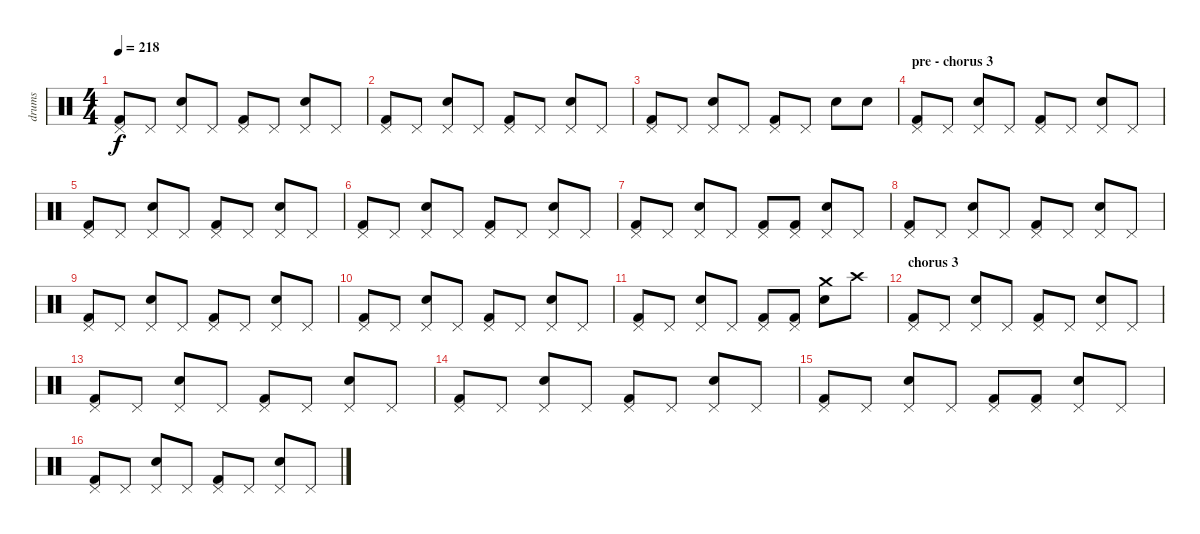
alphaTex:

\track ("drums" "drums") {instrument percussion}
\staff {score}
\articulation defaults
\ts (4 4)
\tempo 218
\clef neutral
\ks c
("Kick (hit) 2" "Pedal Hi-Hat (hit)").8{dy f} "Pedal Hi-Hat (hit)".8 ("Snare (hit) 2" "Pedal Hi-Hat (hit)").8 "Pedal Hi-Hat (hit)".8 ("Kick (hit) 2" "Pedal Hi-Hat (hit)").8 "Pedal Hi-Hat (hit)".8 ("Snare (hit) 2" "Pedal Hi-Hat (hit)").8 "Pedal Hi-Hat (hit)".8 |
("Kick (hit) 2" "Pedal Hi-Hat (hit)").8 "Pedal Hi-Hat (hit)".8 ("Snare (hit) 2" "Pedal Hi-Hat (hit)").8 "Pedal Hi-Hat (hit)".8 ("Kick (hit) 2" "Pedal Hi-Hat (hit)").8 "Pedal Hi-Hat (hit)".8 ("Snare (hit) 2" "Pedal Hi-Hat (hit)").8 "Pedal Hi-Hat (hit)".8 |
("Kick (hit) 2" "Pedal Hi-Hat (hit)").8 "Pedal Hi-Hat (hit)".8 ("Snare (hit) 2" "Pedal Hi-Hat (hit)").8 "Pedal Hi-Hat (hit)".8 ("Kick (hit) 2" "Pedal Hi-Hat (hit)").8 "Pedal Hi-Hat (hit)".8 "Snare (hit) 2"{tr (38 16)}.8 "Snare (hit) 2"{tr (38 16)}.8 |
\section ("" "pre - chorus 3")
("Kick (hit) 2" "Pedal Hi-Hat (hit)").8 "Pedal Hi-Hat (hit)".8 ("Snare (hit) 2" "Pedal Hi-Hat (hit)").8 "Pedal Hi-Hat (hit)".8 ("Kick (hit) 2" "Pedal Hi-Hat (hit)").8 "Pedal Hi-Hat (hit)".8 ("Snare (hit) 2" "Pedal Hi-Hat (hit)").8 "Pedal Hi-Hat (hit)".8 |
("Kick (hit) 2" "Pedal Hi-Hat (hit)").8 "Pedal Hi-Hat (hit)".8 ("Snare (hit) 2" "Pedal Hi-Hat (hit)").8 "Pedal Hi-Hat (hit)".8 ("Kick (hit) 2" "Pedal Hi-Hat (hit)").8 "Pedal Hi-Hat (hit)".8 ("Snare (hit) 2" "Pedal Hi-Hat (hit)").8 "Pedal Hi-Hat (hit)".8 |
("Kick (hit) 2" "Pedal Hi-Hat (hit)").8 "Pedal Hi-Hat (hit)".8 ("Snare (hit) 2" "Pedal Hi-Hat (hit)").8 "Pedal Hi-Hat (hit)".8 ("Kick (hit) 2" "Pedal Hi-Hat (hit)").8 "Pedal Hi-Hat (hit)".8 ("Snare (hit) 2" "Pedal Hi-Hat (hit)").8 "Pedal Hi-Hat (hit)".8 |
("Kick (hit) 2" "Pedal Hi-Hat (hit)").8 "Pedal Hi-Hat (hit)".8 ("Snare (hit) 2" "Pedal Hi-Hat (hit)").8 "Pedal Hi-Hat (hit)".8 ("Kick (hit) 2" "Pedal Hi-Hat (hit)").8 ("Kick (hit) 2" "Pedal Hi-Hat (hit)").8 ("Snare (hit) 2" "Pedal Hi-Hat (hit)").8 "Pedal Hi-Hat (hit)".8 |
("Kick (hit) 2" "Pedal Hi-Hat (hit)").8 "Pedal Hi-Hat (hit)".8 ("Snare (hit) 2" "Pedal Hi-Hat (hit)").8 "Pedal Hi-Hat (hit)".8 ("Kick (hit) 2" "Pedal Hi-Hat (hit)").8 "Pedal Hi-Hat (hit)".8 ("Snare (hit) 2" "Pedal Hi-Hat (hit)").8 "Pedal Hi-Hat (hit)".8 |
("Kick (hit) 2" "Pedal Hi-Hat (hit)").8 "Pedal Hi-Hat (hit)".8 ("Snare (hit) 2" "Pedal Hi-Hat (hit)").8 "Pedal Hi-Hat (hit)".8 ("Kick (hit) 2" "Pedal Hi-Hat (hit)").8 "Pedal Hi-Hat (hit)".8 ("Snare (hit) 2" "Pedal Hi-Hat (hit)").8 "Pedal Hi-Hat (hit)".8 |
("Kick (hit) 2" "Pedal Hi-Hat (hit)").8 "Pedal Hi-Hat (hit)".8 ("Snare (hit) 2" "Pedal Hi-Hat (hit)").8 "Pedal Hi-Hat (hit)".8 ("Kick (hit) 2" "Pedal Hi-Hat (hit)").8 "Pedal Hi-Hat (hit)".8 ("Snare (hit) 2" "Pedal Hi-Hat (hit)").8 "Pedal Hi-Hat (hit)".8 |
("Kick (hit) 2" "Pedal Hi-Hat (hit)").8 "Pedal Hi-Hat (hit)".8 ("Snare (hit) 2" "Pedal Hi-Hat (hit)").8 "Pedal Hi-Hat (hit)".8 ("Kick (hit) 2" "Pedal Hi-Hat (hit)").8 ("Kick (hit) 2" "Pedal Hi-Hat (hit)").8 ("Snare (hit) 2" "Crash medium (hit)").8 "Crash high (hit)".8 |
\section ("" "chorus 3")
("Kick (hit) 2" "Pedal Hi-Hat (hit)").8 "Pedal Hi-Hat (hit)".8 ("Snare (hit) 2" "Pedal Hi-Hat (hit)").8 "Pedal Hi-Hat (hit)".8 ("Kick (hit) 2" "Pedal Hi-Hat (hit)").8 "Pedal Hi-Hat (hit)".8 ("Snare (hit) 2" "Pedal Hi-Hat (hit)").8 "Pedal Hi-Hat (hit)".8 |
("Kick (hit) 2" "Pedal Hi-Hat (hit)").8 "Pedal Hi-Hat (hit)".8 ("Snare (hit) 2" "Pedal Hi-Hat (hit)").8 "Pedal Hi-Hat (hit)".8 ("Kick (hit) 2" "Pedal Hi-Hat (hit)").8 "Pedal Hi-Hat (hit)".8 ("Snare (hit) 2" "Pedal Hi-Hat (hit)").8 "Pedal Hi-Hat (hit)".8 |
("Kick (hit) 2" "Pedal Hi-Hat (hit)").8 "Pedal Hi-Hat (hit)".8 ("Snare (hit) 2" "Pedal Hi-Hat (hit)").8 "Pedal Hi-Hat (hit)".8 ("Kick (hit) 2" "Pedal Hi-Hat (hit)").8 "Pedal Hi-Hat (hit)".8 ("Snare (hit) 2" "Pedal Hi-Hat (hit)").8 "Pedal Hi-Hat (hit)".8 |
("Kick (hit) 2" "Pedal Hi-Hat (hit)").8 "Pedal Hi-Hat (hit)".8 ("Snare (hit) 2" "Pedal Hi-Hat (hit)").8 "Pedal Hi-Hat (hit)".8 ("Kick (hit) 2" "Pedal Hi-Hat (hit)").8 ("Kick (hit) 2" "Pedal Hi-Hat (hit)").8 ("Snare (hit) 2" "Pedal Hi-Hat (hit)").8 "Pedal Hi-Hat (hit)".8 |
("Kick (hit) 2" "Pedal Hi-Hat (hit)").8 "Pedal Hi-Hat (hit)".8 ("Snare (hit) 2" "Pedal Hi-Hat (hit)").8 "Pedal Hi-Hat (hit)".8 ("Kick (hit) 2" "Pedal Hi-Hat (hit)").8 "Pedal Hi-Hat (hit)".8 ("Snare (hit) 2" "Pedal Hi-Hat (hit)").8 "Pedal Hi-Hat (hit)".8
